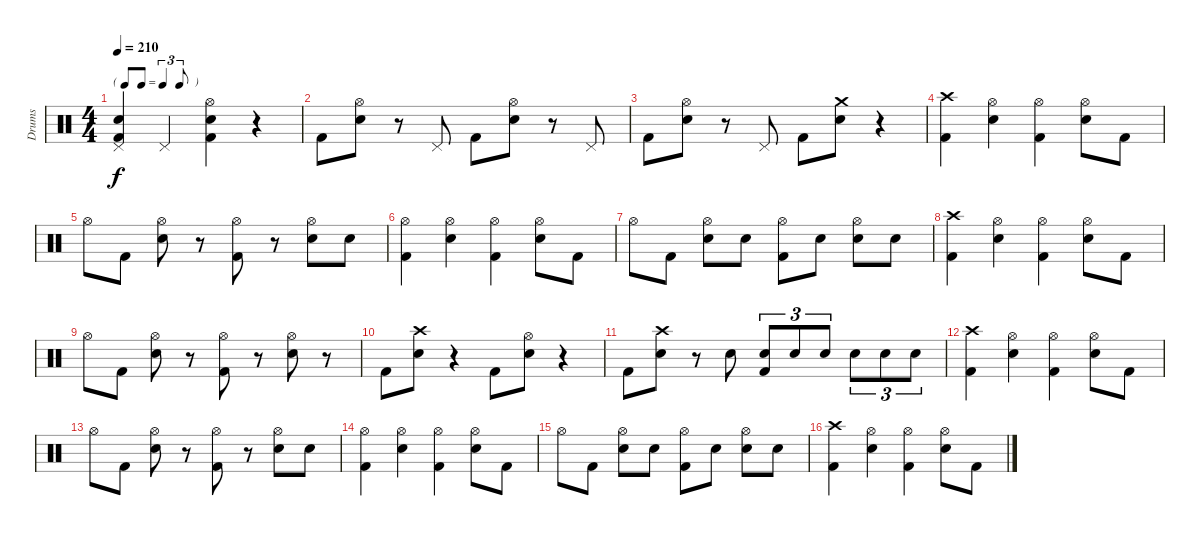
\track ("Drums" "Drums") {instrument percussion}
\staff {score}
\articulation defaults
\ts (4 4)
\tf triplet8th
\tempo 210
\clef neutral
\ks c
("Pedal Hi-Hat (hit)" "Snare (hit) 2" "Kick (hit) 2").4{dy f} "Pedal Hi-Hat (hit)".4 ("Hi-Hat (open)" "Snare (hit) 2" "Kick (hit) 2").4 r.4 |
"Kick (hit) 2".8 ("Hi-Hat (open)" "Snare (hit) 2").8 r.8 "Pedal Hi-Hat (hit)".8 "Kick (hit) 2".8 ("Hi-Hat (open)" "Snare (hit) 2").8 r.8 "Pedal Hi-Hat (hit)".8 |
"Kick (hit) 2".8 ("Hi-Hat (open)" "Snare (hit) 2").8 r.8 "Pedal Hi-Hat (hit)".8 "Kick (hit) 2".8 ("Crash medium (hit)" "Snare (hit) 2").8 r.4 |
("Crash high (hit)" "Kick (hit) 2").4 ("Hi-Hat (open)" "Snare (hit) 2").4 ("Hi-Hat (open)" "Kick (hit) 2").4 ("Hi-Hat (open)" "Snare (hit) 2").8 "Kick (hit) 2".8 |
"Hi-Hat (open)".8 "Kick (hit) 2".8 ("Hi-Hat (open)" "Snare (hit) 2").8 r.8 ("Hi-Hat (open)" "Kick (hit) 2").8 r.8 ("Hi-Hat (open)" "Snare (hit) 2").8 "Snare (hit) 2".8 |
("Hi-Hat (open)" "Kick (hit) 2").4 ("Hi-Hat (open)" "Snare (hit) 2").4 ("Hi-Hat (open)" "Kick (hit) 2").4 ("Hi-Hat (open)" "Snare (hit) 2").8 "Kick (hit) 2".8 |
"Hi-Hat (open)".8 "Kick (hit) 2".8 ("Hi-Hat (open)" "Snare (hit) 2").8 "Snare (hit) 2".8 ("Hi-Hat (open)" "Kick (hit) 2").8 "Snare (hit) 2".8 ("Hi-Hat (open)" "Snare (hit) 2").8 "Snare (hit) 2".8 |
("Crash high (hit)" "Kick (hit) 2").4 ("Hi-Hat (open)" "Snare (hit) 2").4 ("Hi-Hat (open)" "Kick (hit) 2").4 ("Hi-Hat (open)" "Snare (hit) 2").8 "Kick (hit) 2".8 |
"Hi-Hat (open)".8 "Kick (hit) 2".8 ("Hi-Hat (open)" "Snare (hit) 2").8 r.8 ("Hi-Hat (open)" "Kick (hit) 2").8 r.8 ("Hi-Hat (open)" "Snare (hit) 2").8 r.8 |
"Kick (hit) 2".8 ("Crash high (hit)" "Snare (hit) 2").8 r.4 "Kick (hit) 2".8 ("Hi-Hat (open)" "Snare (hit) 2").8 r.4 |
"Kick (hit) 2".8 ("Crash high (hit)" "Snare (hit) 2").8 r.8 "Snare (hit) 2".8 ("Snare (hit) 2" "Kick (hit) 2").8{tu (3 2)} "Snare (hit) 2".8{tu (3 2)} "Snare (hit) 2".8{tu (3 2)} "Snare (hit) 2".8{tu (3 2)} "Snare (hit) 2".8{tu (3 2)} "Snare (hit) 2".8{tu (3 2)} |
("Crash high (hit)" "Kick (hit) 2").4 ("Hi-Hat (open)" "Snare (hit) 2").4 ("Hi-Hat (open)" "Kick (hit) 2").4 ("Hi-Hat (open)" "Snare (hit) 2").8 "Kick (hit) 2".8 |
"Hi-Hat (open)".8 "Kick (hit) 2".8 ("Hi-Hat (open)" "Snare (hit) 2").8 r.8 ("Hi-Hat (open)" "Kick (hit) 2").8 r.8 ("Hi-Hat (open)" "Snare (hit) 2").8 "Snare (hit) 2".8 |
("Hi-Hat (open)" "Kick (hit) 2").4 ("Hi-Hat (open)" "Snare (hit) 2").4 ("Hi-Hat (open)" "Kick (hit) 2").4 ("Hi-Hat (open)" "Snare (hit) 2").8 "Kick (hit) 2".8 |
"Hi-Hat (open)".8 "Kick (hit) 2".8 ("Hi-Hat (open)" "Snare (hit) 2").8 "Snare (hit) 2".8 ("Hi-Hat (open)" "Kick (hit) 2").8 "Snare (hit) 2".8 ("Hi-Hat (open)" "Snare (hit) 2").8 "Snare (hit) 2".8 |
("Crash high (hit)" "Kick (hit) 2").4 ("Hi-Hat (open)" "Snare (hit) 2").4 ("Hi-Hat (open)" "Kick (hit) 2").4 ("Hi-Hat (open)" "Snare (hit) 2").8 "Kick (hit) 2".8
